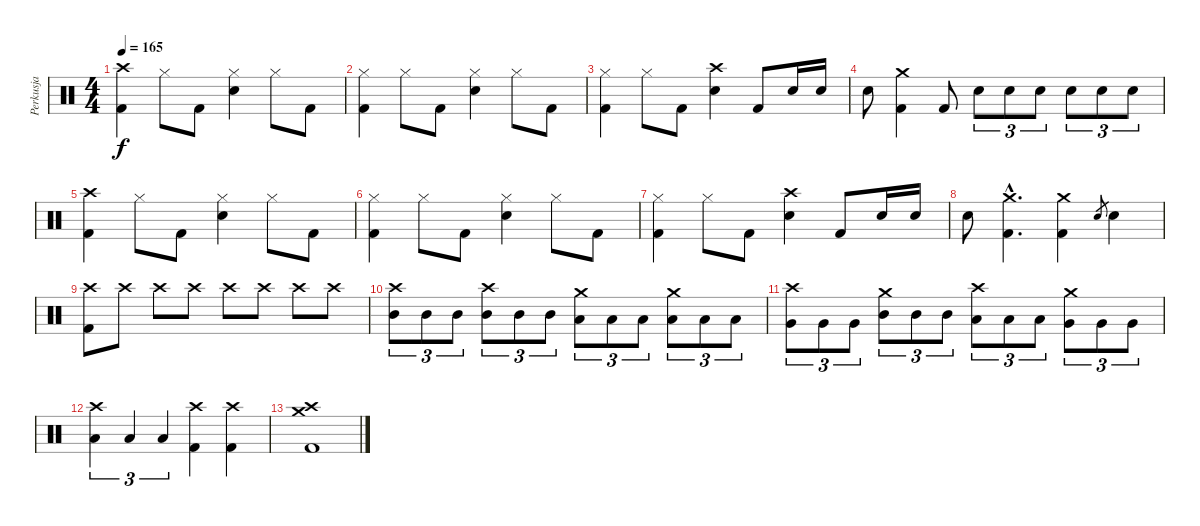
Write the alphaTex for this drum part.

\track ("Perkusja" "Perkusja") {instrument percussion}
\staff {score}
\articulation defaults
\ts (4 4)
\tempo 165
\clef neutral
\ks c
("Crash high (hit)" "Kick (hit) 2").4{dy f} "Hi-Hat (closed)".8 "Kick (hit) 2".8 ("Hi-Hat (closed)" "Snare (hit) 2").4 "Hi-Hat (closed)".8 "Kick (hit) 2".8 |
("Hi-Hat (closed)" "Kick (hit) 2").4 "Hi-Hat (closed)".8 "Kick (hit) 2".8 ("Hi-Hat (closed)" "Snare (hit) 2").4 "Hi-Hat (closed)".8 "Kick (hit) 2".8 |
("Hi-Hat (closed)" "Kick (hit) 2").4 "Hi-Hat (closed)".8 "Kick (hit) 2".8 ("Crash high (hit)" "Snare (hit) 2").4 "Kick (hit) 2".8 "Snare (hit) 2".16 "Snare (hit) 2".16 |
"Snare (hit) 2".8 ("Crash medium (hit)" "Kick (hit) 2").4 "Kick (hit) 2".8 "Snare (hit) 2".8{tu (3 2)} "Snare (hit) 2".8{tu (3 2)} "Snare (hit) 2".8{tu (3 2)} "Snare (hit) 2".8{tu (3 2)} "Snare (hit) 2".8{tu (3 2)} "Snare (hit) 2".8{tu (3 2)} |
("Crash high (hit)" "Kick (hit) 2").4 "Hi-Hat (closed)".8 "Kick (hit) 2".8 ("Hi-Hat (closed)" "Snare (hit) 2").4 "Hi-Hat (closed)".8 "Kick (hit) 2".8 |
("Hi-Hat (closed)" "Kick (hit) 2").4 "Hi-Hat (closed)".8 "Kick (hit) 2".8 ("Hi-Hat (closed)" "Snare (hit) 2").4 "Hi-Hat (closed)".8 "Kick (hit) 2".8 |
("Hi-Hat (closed)" "Kick (hit) 2").4 "Hi-Hat (closed)".8 "Kick (hit) 2".8 ("Crash high (hit)" "Snare (hit) 2").4 "Kick (hit) 2".8 "Snare (hit) 2".16 "Snare (hit) 2".16 |
"Snare (hit) 2".8 ("Crash medium (hit)"{hac} "Kick (hit) 2"{hac}).4{d} ("Crash medium (hit)" "Kick (hit) 2").4 "Snare (hit) 2".8{gr} "Snare (hit) 2".4 |
("Crash high (hit)" "Kick (hit) 2").8 "Crash high (hit)".8 "Crash high (hit)".8 "Crash high (hit)".8 "Crash high (hit)".8 "Crash high (hit)".8 "Crash high (hit)".8 "Crash high (hit)".8 |
("Mid Tom (hit)" "Crash high (hit)").8{tu (3 2)} "Mid Tom (hit)".8{tu (3 2)} "Mid Tom (hit)".8{tu (3 2)} ("Mid Tom (hit)" "Crash high (hit)").8{tu (3 2)} "Mid Tom (hit)".8{tu (3 2)} "Mid Tom (hit)".8{tu (3 2)} ("Low Tom (hit)" "Crash medium (hit)").8{tu (3 2)} "Low Tom (hit)".8{tu (3 2)} "Low Tom (hit)".8{tu (3 2)} ("Low Tom (hit)" "Crash medium (hit)").8{tu (3 2)} "Low Tom (hit)".8{tu (3 2)} "Low Tom (hit)".8{tu (3 2)} |
("Very Low Tom (hit)" "Crash high (hit)").8{tu (3 2)} "Very Low Tom (hit)".8{tu (3 2)} "Very Low Tom (hit)".8{tu (3 2)} ("Mid Tom (hit)" "Crash medium (hit)").8{tu (3 2)} "Mid Tom (hit)".8{tu (3 2)} "Mid Tom (hit)".8{tu (3 2)} ("Low Tom (hit)" "Crash high (hit)").8{tu (3 2)} "Low Tom (hit)".8{tu (3 2)} "Low Tom (hit)".8{tu (3 2)} ("Very Low Tom (hit)" "Crash medium (hit)").8{tu (3 2)} "Very Low Tom (hit)".8{tu (3 2)} "Very Low Tom (hit)".8{tu (3 2)} |
("Low Floor Tom (hit)" "Crash high (hit)").4{tu (3 2)} "Low Floor Tom (hit)".4{tu (3 2)} "Low Floor Tom (hit)".4{tu (3 2)} ("Crash high (hit)" "Kick (hit) 2").4 ("Crash high (hit)" "Kick (hit) 2").4 |
("Crash high (hit)" "Crash medium (hit)" "Kick (hit) 2").1
